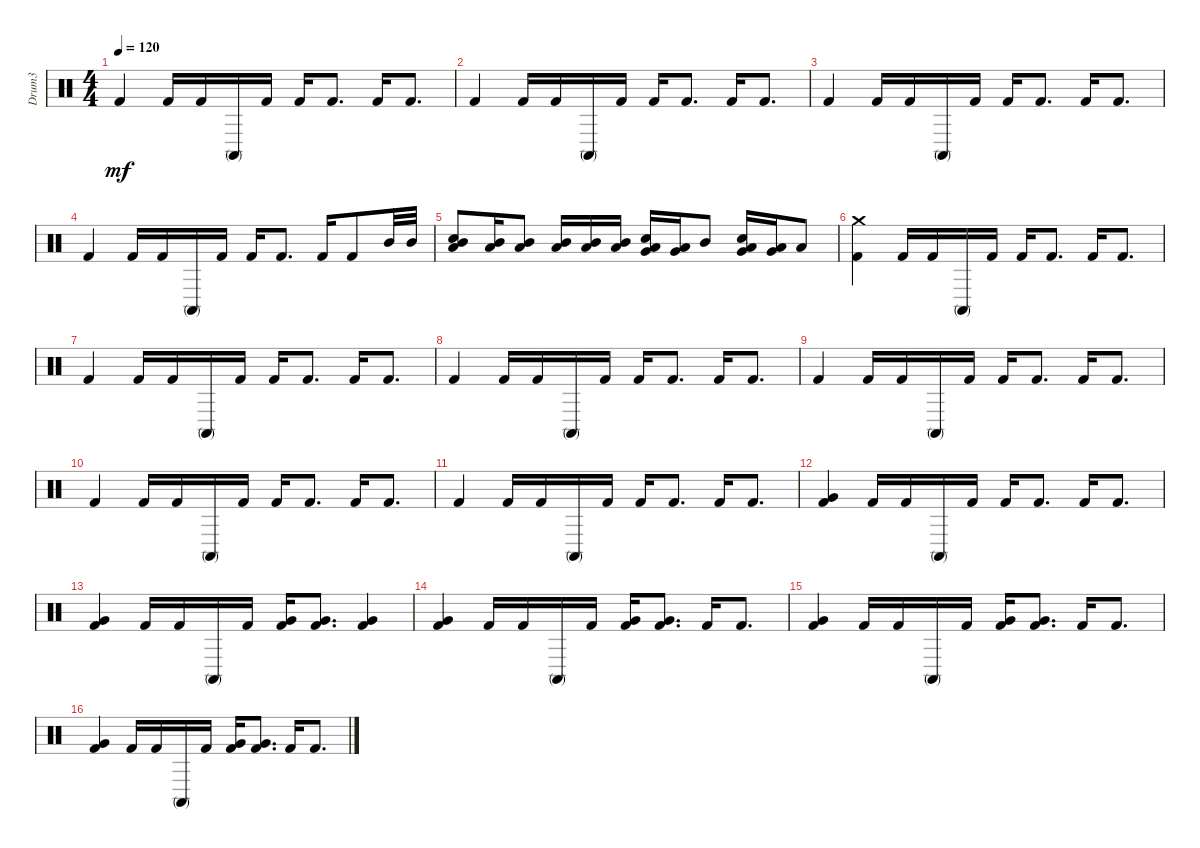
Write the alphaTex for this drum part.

\track ("Drum3" "Drum3") {instrument percussion}
\staff {score}
\articulation defaults
\ts (4 4)
\tempo 120
\clef neutral
\ks c "Kick (hit) 2".4{dy mf} "Kick (hit) 2".16 "Kick (hit) 2".16 "Conga high (mute)".16 "Kick (hit) 2".16 "Kick (hit) 2".16 "Kick (hit) 2".8{d} "Kick (hit) 2".16 "Kick (hit) 2".8{d}
|
"Kick (hit) 2".4 "Kick (hit) 2".16 "Kick (hit) 2".16 "Conga high (mute)".16 "Kick (hit) 2".16 "Kick (hit) 2".16 "Kick (hit) 2".8{d} "Kick (hit) 2".16 "Kick (hit) 2".8{d} |
"Kick (hit) 2".4 "Kick (hit) 2".16 "Kick (hit) 2".16 "Conga high (mute)".16 "Kick (hit) 2".16 "Kick (hit) 2".16 "Kick (hit) 2".8{d} "Kick (hit) 2".16 "Kick (hit) 2".8{d} |
"Kick (hit) 2".4 "Kick (hit) 2".16 "Kick (hit) 2".16 "Conga high (mute)".16 "Kick (hit) 2".16 "Kick (hit) 2".16 "Kick (hit) 2".8{d} "Kick (hit) 2".16 "Kick (hit) 2".8 "Mid Tom (hit)".32 "Mid Tom (hit)".32 |
("Mid Tom (hit)" "Snare (hit) 2" "Low Tom (hit)").8 ("Mid Tom (hit)" "Low Tom (hit)").16 ("Low Tom (hit)" "Mid Tom (hit)").8 ("Mid Tom (hit)" "Low Tom (hit)").16 ("Mid Tom (hit)" "Low Tom (hit)").16 ("Mid Tom (hit)" "Low Tom (hit)").16 ("Low Tom (hit)" "Very Low Tom (hit)" "Snare (hit) 2").16 ("Low Tom (hit)" "Very Low Tom (hit)").16 "Mid Tom (hit)".8 ("Very Low Tom (hit)" "Low Floor Tom (hit)" "Snare (hit) 2").16 ("Very Low Tom (hit)" "Low Floor Tom (hit)").16 "Low Tom (hit)".8 |
("Kick (hit) 2" "Crash medium (hit)").4 "Kick (hit) 2".16 "Kick (hit) 2".16 "Conga high (mute)".16 "Kick (hit) 2".16 "Kick (hit) 2".16 "Kick (hit) 2".8{d} "Kick (hit) 2".16 "Kick (hit) 2".8{d} |
"Kick (hit) 2".4 "Kick (hit) 2".16 "Kick (hit) 2".16 "Conga high (mute)".16 "Kick (hit) 2".16 "Kick (hit) 2".16 "Kick (hit) 2".8{d} "Kick (hit) 2".16 "Kick (hit) 2".8{d} |
"Kick (hit) 2".4 "Kick (hit) 2".16 "Kick (hit) 2".16 "Conga high (mute)".16 "Kick (hit) 2".16 "Kick (hit) 2".16 "Kick (hit) 2".8{d} "Kick (hit) 2".16 "Kick (hit) 2".8{d} |
"Kick (hit) 2".4 "Kick (hit) 2".16 "Kick (hit) 2".16 "Conga high (mute)".16 "Kick (hit) 2".16 "Kick (hit) 2".16 "Kick (hit) 2".8{d} "Kick (hit) 2".16 "Kick (hit) 2".8{d} |
"Kick (hit) 2".4 "Kick (hit) 2".16 "Kick (hit) 2".16 "Conga high (mute)".16 "Kick (hit) 2".16 "Kick (hit) 2".16 "Kick (hit) 2".8{d} "Kick (hit) 2".16 "Kick (hit) 2".8{d} |
"Kick (hit) 2".4 "Kick (hit) 2".16 "Kick (hit) 2".16 "Conga high (mute)".16 "Kick (hit) 2".16 "Kick (hit) 2".16 "Kick (hit) 2".8{d} "Kick (hit) 2".16 "Kick (hit) 2".8{d} |
("Kick (hit) 2" "Very Low Tom (hit)").4 "Kick (hit) 2".16 "Kick (hit) 2".16 "Conga high (mute)".16 "Kick (hit) 2".16 "Kick (hit) 2".16 "Kick (hit) 2".8{d} "Kick (hit) 2".16 "Kick (hit) 2".8{d} |
("Kick (hit) 2" "Very Low Tom (hit)").4 "Kick (hit) 2".16 "Kick (hit) 2".16 "Conga high (mute)".16 "Kick (hit) 2".16 ("Kick (hit) 2" "Very Low Tom (hit)").16 ("Kick (hit) 2" "Very Low Tom (hit)").8{d} ("Kick (hit) 2" "Very Low Tom (hit)").4 |
("Kick (hit) 2" "Very Low Tom (hit)").4 "Kick (hit) 2".16 "Kick (hit) 2".16 "Conga high (mute)".16 "Kick (hit) 2".16 ("Kick (hit) 2" "Very Low Tom (hit)").16 ("Kick (hit) 2" "Very Low Tom (hit)").8{d} "Kick (hit) 2".16 "Kick (hit) 2".8{d} |
("Kick (hit) 2" "Very Low Tom (hit)").4 "Kick (hit) 2".16 "Kick (hit) 2".16 "Conga high (mute)".16 "Kick (hit) 2".16 ("Kick (hit) 2" "Very Low Tom (hit)").16 ("Kick (hit) 2" "Very Low Tom (hit)").8{d} "Kick (hit) 2".16 "Kick (hit) 2".8{d} |
("Kick (hit) 2" "Very Low Tom (hit)").4 "Kick (hit) 2".16 "Kick (hit) 2".16 "Conga high (mute)".16 "Kick (hit) 2".16 ("Kick (hit) 2" "Very Low Tom (hit)").16 ("Kick (hit) 2" "Very Low Tom (hit)").8{d} "Kick (hit) 2".16 "Kick (hit) 2".8{d}
